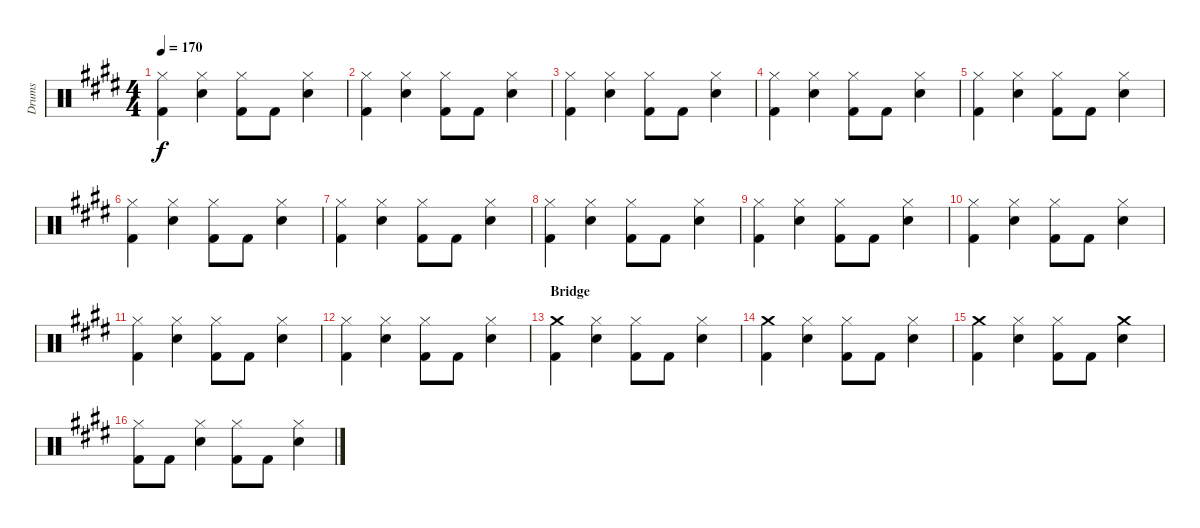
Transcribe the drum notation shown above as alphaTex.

\track ("Drums" "Drums") {instrument percussion}
\staff {score}
\articulation defaults
\ts (4 4)
\tempo 170
\clef neutral
\ks c#minor
("Hi-Hat (closed)" "Kick (hit) 2").4{dy f} ("Hi-Hat (closed)" "Electric Snare (hit)").4 ("Hi-Hat (closed)" "Kick (hit) 2").8 "Kick (hit) 2".8 ("Hi-Hat (closed)" "Electric Snare (hit)").4 |
("Hi-Hat (closed)" "Kick (hit) 2").4 ("Hi-Hat (closed)" "Electric Snare (hit)").4 ("Hi-Hat (closed)" "Kick (hit) 2").8 "Kick (hit) 2".8 ("Hi-Hat (closed)" "Electric Snare (hit)").4 |
("Hi-Hat (closed)" "Kick (hit) 2").4 ("Hi-Hat (closed)" "Electric Snare (hit)").4 ("Hi-Hat (closed)" "Kick (hit) 2").8 "Kick (hit) 2".8 ("Hi-Hat (closed)" "Electric Snare (hit)").4 |
("Hi-Hat (closed)" "Kick (hit) 2").4 ("Hi-Hat (closed)" "Electric Snare (hit)").4 ("Hi-Hat (closed)" "Kick (hit) 2").8 "Kick (hit) 2".8 ("Hi-Hat (closed)" "Electric Snare (hit)").4 |
("Hi-Hat (closed)" "Kick (hit) 2").4 ("Hi-Hat (closed)" "Electric Snare (hit)").4 ("Hi-Hat (closed)" "Kick (hit) 2").8 "Kick (hit) 2".8 ("Hi-Hat (closed)" "Electric Snare (hit)").4 |
("Hi-Hat (closed)" "Kick (hit) 2").4 ("Hi-Hat (closed)" "Electric Snare (hit)").4 ("Hi-Hat (closed)" "Kick (hit) 2").8 "Kick (hit) 2".8 ("Hi-Hat (closed)" "Electric Snare (hit)").4 |
("Hi-Hat (closed)" "Kick (hit) 2").4 ("Hi-Hat (closed)" "Electric Snare (hit)").4 ("Hi-Hat (closed)" "Kick (hit) 2").8 "Kick (hit) 2".8 ("Hi-Hat (closed)" "Electric Snare (hit)").4 |
("Hi-Hat (closed)" "Kick (hit) 2").4 ("Hi-Hat (closed)" "Electric Snare (hit)").4 ("Hi-Hat (closed)" "Kick (hit) 2").8 "Kick (hit) 2".8 ("Hi-Hat (closed)" "Electric Snare (hit)").4 |
("Hi-Hat (closed)" "Kick (hit) 2").4 ("Hi-Hat (closed)" "Electric Snare (hit)").4 ("Hi-Hat (closed)" "Kick (hit) 2").8 "Kick (hit) 2".8 ("Hi-Hat (closed)" "Electric Snare (hit)").4 |
("Hi-Hat (closed)" "Kick (hit) 2").4 ("Hi-Hat (closed)" "Electric Snare (hit)").4 ("Hi-Hat (closed)" "Kick (hit) 2").8 "Kick (hit) 2".8 ("Hi-Hat (closed)" "Electric Snare (hit)").4 |
("Hi-Hat (closed)" "Kick (hit) 2").4 ("Hi-Hat (closed)" "Electric Snare (hit)").4 ("Hi-Hat (closed)" "Kick (hit) 2").8 "Kick (hit) 2".8 ("Hi-Hat (closed)" "Electric Snare (hit)").4 |
("Hi-Hat (closed)" "Kick (hit) 2").4 ("Hi-Hat (closed)" "Electric Snare (hit)").4 ("Hi-Hat (closed)" "Kick (hit) 2").8 "Kick (hit) 2".8 ("Hi-Hat (closed)" "Electric Snare (hit)").4 |
\section ("" "Bridge")
("Crash medium (hit)" "Kick (hit) 2").4 ("Hi-Hat (closed)" "Electric Snare (hit)").4 ("Hi-Hat (closed)" "Kick (hit) 2").8 "Kick (hit) 2".8 ("Hi-Hat (closed)" "Electric Snare (hit)").4 |
("Crash medium (hit)" "Kick (hit) 2").4 ("Hi-Hat (closed)" "Electric Snare (hit)").4 ("Hi-Hat (closed)" "Kick (hit) 2").8 "Kick (hit) 2".8 ("Hi-Hat (closed)" "Electric Snare (hit)").4 |
("Crash medium (hit)" "Kick (hit) 2").4 ("Hi-Hat (closed)" "Electric Snare (hit)").4 ("Hi-Hat (closed)" "Kick (hit) 2").8 "Kick (hit) 2".8 ("Crash medium (hit)" "Electric Snare (hit)").4 |
("Hi-Hat (closed)" "Kick (hit) 2").8 "Kick (hit) 2".8 ("Hi-Hat (closed)" "Electric Snare (hit)").4 ("Hi-Hat (closed)" "Kick (hit) 2").8 "Kick (hit) 2".8 ("Hi-Hat (closed)" "Electric Snare (hit)").4
